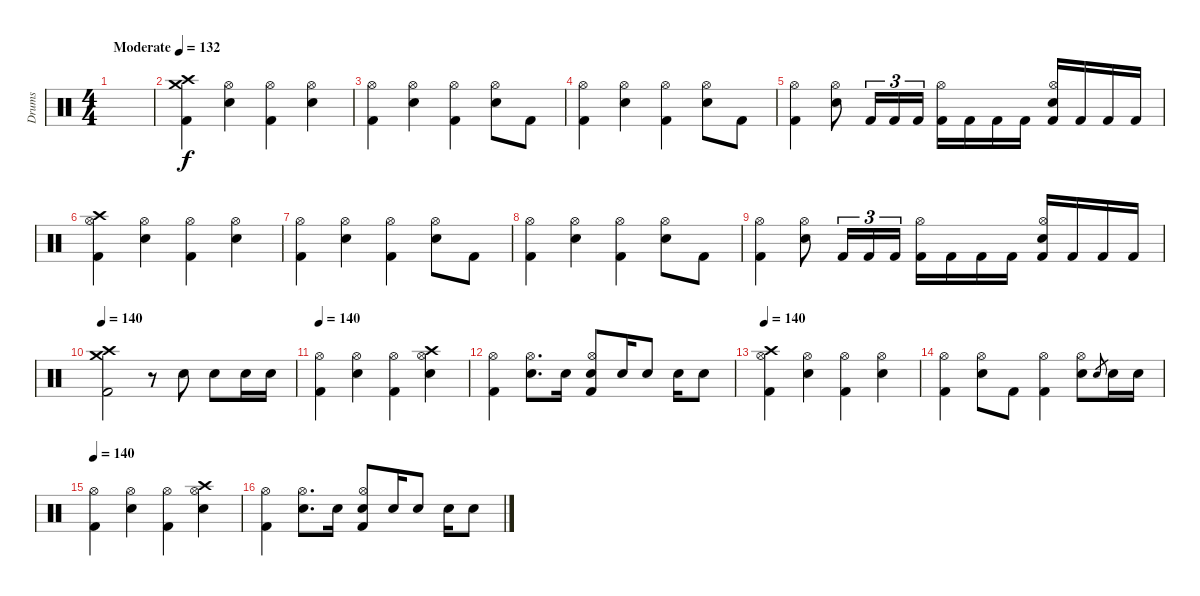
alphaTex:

\track ("Drums" "Drums") {instrument percussion}
\staff {score}
\articulation defaults
\ts (4 4)
\tempo (132 "Moderate")
\clef neutral
\ks c
|
("Crash high (hit)" "Crash medium (hit)" "Kick (hit) 2").4 ("Hi-Hat (open)" "Electric Snare (hit)").4 ("Hi-Hat (open)" "Kick (hit) 2").4 ("Hi-Hat (open)" "Electric Snare (hit)").4 |
("Hi-Hat (open)" "Kick (hit) 2").4 ("Hi-Hat (open)" "Electric Snare (hit)").4 ("Hi-Hat (open)" "Kick (hit) 2").4 ("Hi-Hat (open)" "Electric Snare (hit)").8 "Kick (hit) 2".8 |
("Hi-Hat (open)" "Kick (hit) 2").4 ("Hi-Hat (open)" "Electric Snare (hit)").4 ("Hi-Hat (open)" "Kick (hit) 2").4 ("Hi-Hat (open)" "Electric Snare (hit)").8 "Kick (hit) 2".8 |
("Hi-Hat (open)" "Kick (hit) 2").4 ("Hi-Hat (open)" "Electric Snare (hit)").8 "Kick (hit) 2".16{tu (3 2)} "Kick (hit) 2".16{tu (3 2)} "Kick (hit) 2".16{tu (3 2)} ("Hi-Hat (open)" "Kick (hit) 2").16 "Kick (hit) 2".16 "Kick (hit) 2".16 "Kick (hit) 2".16 ("Hi-Hat (open)" "Electric Snare (hit)" "Kick (hit) 2").16 "Kick (hit) 2".16 "Kick (hit) 2".16 "Kick (hit) 2".16 |
("Crash high (hit)" "Hi-Hat (open)" "Kick (hit) 2").4 ("Hi-Hat (open)" "Electric Snare (hit)").4 ("Hi-Hat (open)" "Kick (hit) 2").4 ("Hi-Hat (open)" "Electric Snare (hit)").4 |
("Hi-Hat (open)" "Kick (hit) 2").4 ("Hi-Hat (open)" "Electric Snare (hit)").4 ("Hi-Hat (open)" "Kick (hit) 2").4 ("Hi-Hat (open)" "Electric Snare (hit)").8 "Kick (hit) 2".8 |
("Hi-Hat (open)" "Kick (hit) 2").4 ("Hi-Hat (open)" "Electric Snare (hit)").4 ("Hi-Hat (open)" "Kick (hit) 2").4 ("Hi-Hat (open)" "Electric Snare (hit)").8 "Kick (hit) 2".8 |
("Hi-Hat (open)" "Kick (hit) 2").4 ("Hi-Hat (open)" "Electric Snare (hit)").8 "Kick (hit) 2".16{tu (3 2)} "Kick (hit) 2".16{tu (3 2)} "Kick (hit) 2".16{tu (3 2)} ("Hi-Hat (open)" "Kick (hit) 2").16 "Kick (hit) 2".16 "Kick (hit) 2".16 "Kick (hit) 2".16 ("Hi-Hat (open)" "Electric Snare (hit)" "Kick (hit) 2").16 "Kick (hit) 2".16 "Kick (hit) 2".16 "Kick (hit) 2".16 |
\tempo 140
("Crash high (hit)" "Crash medium (hit)" "Kick (hit) 2").2 r.8 "Electric Snare (hit)".8 "Electric Snare (hit)".8 "Electric Snare (hit)".16 "Electric Snare (hit)".16 |
\tempo 140
("Hi-Hat (open)" "Kick (hit) 2").4 ("Hi-Hat (open)" "Electric Snare (hit)").4 ("Hi-Hat (open)" "Kick (hit) 2").4 ("Hi-Hat (open)" "Crash high (hit)" "Electric Snare (hit)").4 |
("Hi-Hat (open)" "Kick (hit) 2").4 ("Hi-Hat (open)" "Electric Snare (hit)").8{d} "Electric Snare (hit)".16 ("Hi-Hat (open)" "Electric Snare (hit)" "Kick (hit) 2").8 "Electric Snare (hit)".16 "Electric Snare (hit)".8 "Electric Snare (hit)".16 "Electric Snare (hit)".8 |
\tempo 140
("Crash high (hit)" "Hi-Hat (open)" "Kick (hit) 2").4 ("Hi-Hat (open)" "Electric Snare (hit)").4 ("Hi-Hat (open)" "Kick (hit) 2").4 ("Hi-Hat (open)" "Electric Snare (hit)").4 |
("Hi-Hat (open)" "Kick (hit) 2").4 ("Hi-Hat (open)" "Electric Snare (hit)").8 "Kick (hit) 2".8 ("Hi-Hat (open)" "Kick (hit) 2").4 ("Hi-Hat (open)" "Electric Snare (hit)").8 "Electric Snare (hit)".8{gr} "Electric Snare (hit)".16 "Electric Snare (hit)".16 |
\tempo 140
("Hi-Hat (open)" "Kick (hit) 2").4 ("Hi-Hat (open)" "Electric Snare (hit)").4 ("Hi-Hat (open)" "Kick (hit) 2").4 ("Hi-Hat (open)" "Crash high (hit)" "Electric Snare (hit)").4 |
("Hi-Hat (open)" "Kick (hit) 2").4 ("Hi-Hat (open)" "Electric Snare (hit)").8{d} "Electric Snare (hit)".16 ("Hi-Hat (open)" "Electric Snare (hit)" "Kick (hit) 2").8 "Electric Snare (hit)".16 "Electric Snare (hit)".8 "Electric Snare (hit)".16 "Electric Snare (hit)".8
